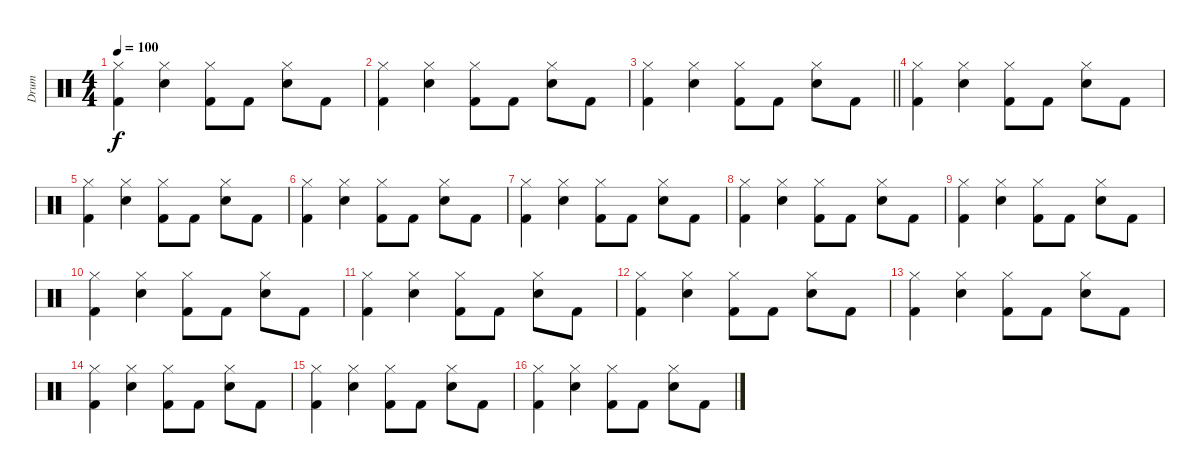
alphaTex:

\track ("Drum" "Drum") {instrument percussion}
\staff {score}
\articulation defaults
\ts (4 4)
\tempo 100
\clef neutral
\ks c
("Hi-Hat (closed)" "Kick (hit) 2").4{dy f} ("Hi-Hat (closed)" "Snare (hit) 2").4 ("Hi-Hat (closed)" "Kick (hit) 2").8 "Kick (hit) 2".8 ("Snare (hit) 2" "Hi-Hat (closed)").8 "Kick (hit) 2".8 |
("Hi-Hat (closed)" "Kick (hit) 2").4 ("Hi-Hat (closed)" "Snare (hit) 2").4 ("Hi-Hat (closed)" "Kick (hit) 2").8 "Kick (hit) 2".8 ("Snare (hit) 2" "Hi-Hat (closed)").8 "Kick (hit) 2".8 |
\barLineRight lightlight
("Hi-Hat (closed)" "Kick (hit) 2").4 ("Hi-Hat (closed)" "Snare (hit) 2").4 ("Hi-Hat (closed)" "Kick (hit) 2").8 "Kick (hit) 2".8 ("Snare (hit) 2" "Hi-Hat (closed)").8 "Kick (hit) 2".8 |
("Hi-Hat (closed)" "Kick (hit) 2").4 ("Hi-Hat (closed)" "Snare (hit) 2").4 ("Hi-Hat (closed)" "Kick (hit) 2").8 "Kick (hit) 2".8 ("Snare (hit) 2" "Hi-Hat (closed)").8 "Kick (hit) 2".8 |
("Hi-Hat (closed)" "Kick (hit) 2").4 ("Hi-Hat (closed)" "Snare (hit) 2").4 ("Hi-Hat (closed)" "Kick (hit) 2").8 "Kick (hit) 2".8 ("Snare (hit) 2" "Hi-Hat (closed)").8 "Kick (hit) 2".8 |
("Hi-Hat (closed)" "Kick (hit) 2").4 ("Hi-Hat (closed)" "Snare (hit) 2").4 ("Hi-Hat (closed)" "Kick (hit) 2").8 "Kick (hit) 2".8 ("Snare (hit) 2" "Hi-Hat (closed)").8 "Kick (hit) 2".8 |
("Hi-Hat (closed)" "Kick (hit) 2").4 ("Hi-Hat (closed)" "Snare (hit) 2").4 ("Hi-Hat (closed)" "Kick (hit) 2").8 "Kick (hit) 2".8 ("Snare (hit) 2" "Hi-Hat (closed)").8 "Kick (hit) 2".8 |
("Hi-Hat (closed)" "Kick (hit) 2").4 ("Hi-Hat (closed)" "Snare (hit) 2").4 ("Hi-Hat (closed)" "Kick (hit) 2").8 "Kick (hit) 2".8 ("Snare (hit) 2" "Hi-Hat (closed)").8 "Kick (hit) 2".8 |
("Hi-Hat (closed)" "Kick (hit) 2").4 ("Hi-Hat (closed)" "Snare (hit) 2").4 ("Hi-Hat (closed)" "Kick (hit) 2").8 "Kick (hit) 2".8 ("Snare (hit) 2" "Hi-Hat (closed)").8 "Kick (hit) 2".8 |
("Hi-Hat (closed)" "Kick (hit) 2").4 ("Hi-Hat (closed)" "Snare (hit) 2").4 ("Hi-Hat (closed)" "Kick (hit) 2").8 "Kick (hit) 2".8 ("Snare (hit) 2" "Hi-Hat (closed)").8 "Kick (hit) 2".8 |
("Hi-Hat (closed)" "Kick (hit) 2").4 ("Hi-Hat (closed)" "Snare (hit) 2").4 ("Hi-Hat (closed)" "Kick (hit) 2").8 "Kick (hit) 2".8 ("Snare (hit) 2" "Hi-Hat (closed)").8 "Kick (hit) 2".8 |
("Hi-Hat (closed)" "Kick (hit) 2").4 ("Hi-Hat (closed)" "Snare (hit) 2").4 ("Hi-Hat (closed)" "Kick (hit) 2").8 "Kick (hit) 2".8 ("Snare (hit) 2" "Hi-Hat (closed)").8 "Kick (hit) 2".8 |
("Hi-Hat (closed)" "Kick (hit) 2").4 ("Hi-Hat (closed)" "Snare (hit) 2").4 ("Hi-Hat (closed)" "Kick (hit) 2").8 "Kick (hit) 2".8 ("Snare (hit) 2" "Hi-Hat (closed)").8 "Kick (hit) 2".8 |
("Hi-Hat (closed)" "Kick (hit) 2").4 ("Hi-Hat (closed)" "Snare (hit) 2").4 ("Hi-Hat (closed)" "Kick (hit) 2").8 "Kick (hit) 2".8 ("Snare (hit) 2" "Hi-Hat (closed)").8 "Kick (hit) 2".8 |
("Hi-Hat (closed)" "Kick (hit) 2").4 ("Hi-Hat (closed)" "Snare (hit) 2").4 ("Hi-Hat (closed)" "Kick (hit) 2").8 "Kick (hit) 2".8 ("Snare (hit) 2" "Hi-Hat (closed)").8 "Kick (hit) 2".8 |
("Hi-Hat (closed)" "Kick (hit) 2").4 ("Hi-Hat (closed)" "Snare (hit) 2").4 ("Hi-Hat (closed)" "Kick (hit) 2").8 "Kick (hit) 2".8 ("Snare (hit) 2" "Hi-Hat (closed)").8 "Kick (hit) 2".8
